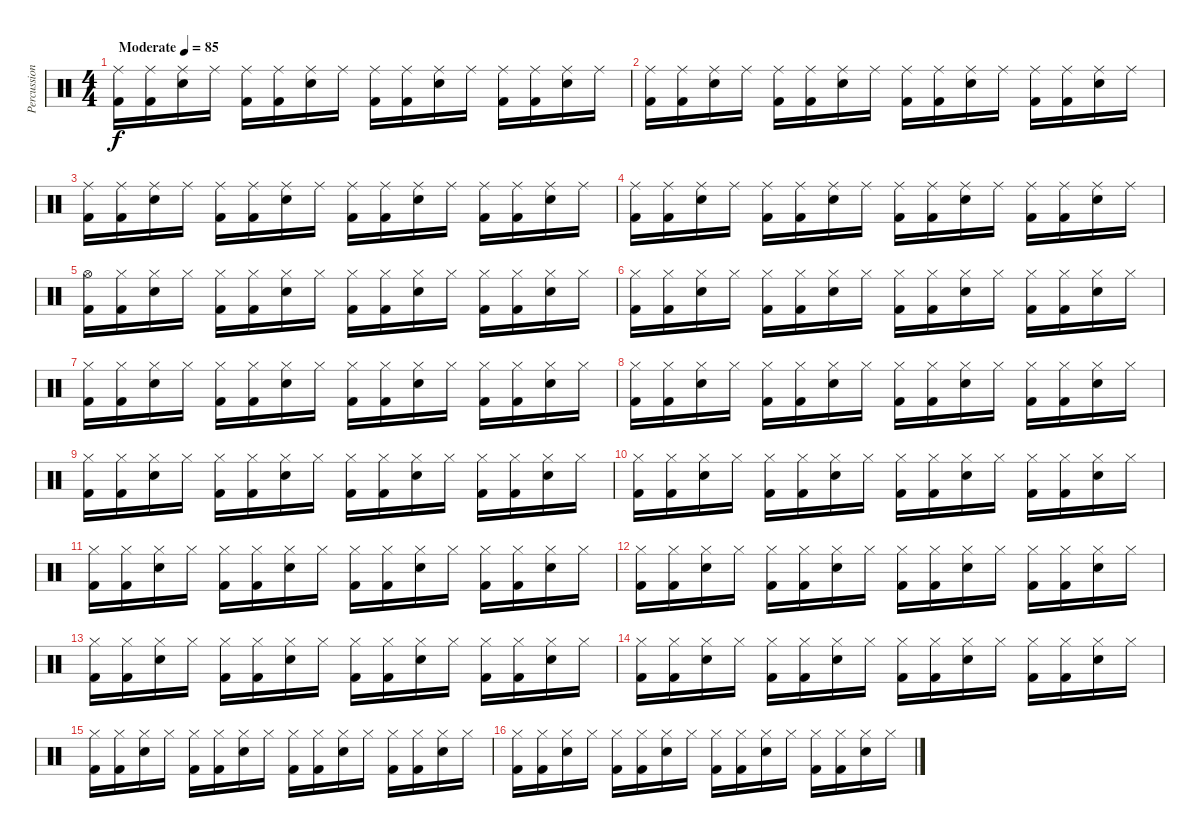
\track ("Percussion" "Percussion") {instrument percussion}
\staff {score}
\articulation defaults
\ts (4 4)
\tempo (85 "Moderate")
\clef neutral
\ks c
("Ride (middle)" "Kick (hit) 2").16{dy f} ("Ride (middle)" "Kick (hit) 2").16 ("Ride (middle)" "Snare (hit) 2").16 "Ride (middle)".16 ("Ride (middle)" "Kick (hit) 2").16 ("Ride (middle)" "Kick (hit) 2").16 ("Ride (middle)" "Snare (hit) 2").16 "Ride (middle)".16 ("Ride (middle)" "Kick (hit) 2").16 ("Ride (middle)" "Kick (hit) 2").16 ("Ride (middle)" "Snare (hit) 2").16 "Ride (middle)".16 ("Ride (middle)" "Kick (hit) 2").16 ("Ride (middle)" "Kick (hit) 2").16 ("Ride (middle)" "Snare (hit) 2").16 "Ride (middle)".16 |
("Ride (middle)" "Kick (hit) 2").16 ("Ride (middle)" "Kick (hit) 2").16 ("Ride (middle)" "Snare (hit) 2").16 "Ride (middle)".16 ("Ride (middle)" "Kick (hit) 2").16 ("Ride (middle)" "Kick (hit) 2").16 ("Ride (middle)" "Snare (hit) 2").16 "Ride (middle)".16 ("Ride (middle)" "Kick (hit) 2").16 ("Ride (middle)" "Kick (hit) 2").16 ("Ride (middle)" "Snare (hit) 2").16 "Ride (middle)".16 ("Ride (middle)" "Kick (hit) 2").16 ("Ride (middle)" "Kick (hit) 2").16 ("Ride (middle)" "Snare (hit) 2").16 "Ride (middle)".16 |
("Ride (middle)" "Kick (hit) 2").16 ("Ride (middle)" "Kick (hit) 2").16 ("Ride (middle)" "Snare (hit) 2").16 "Ride (middle)".16 ("Ride (middle)" "Kick (hit) 2").16 ("Ride (middle)" "Kick (hit) 2").16 ("Ride (middle)" "Snare (hit) 2").16 "Ride (middle)".16 ("Ride (middle)" "Kick (hit) 2").16 ("Ride (middle)" "Kick (hit) 2").16 ("Ride (middle)" "Snare (hit) 2").16 "Ride (middle)".16 ("Ride (middle)" "Kick (hit) 2").16 ("Ride (middle)" "Kick (hit) 2").16 ("Ride (middle)" "Snare (hit) 2").16 "Ride (middle)".16 |
("Ride (middle)" "Kick (hit) 2").16 ("Ride (middle)" "Kick (hit) 2").16 ("Ride (middle)" "Snare (hit) 2").16 "Ride (middle)".16 ("Ride (middle)" "Kick (hit) 2").16 ("Ride (middle)" "Kick (hit) 2").16 ("Ride (middle)" "Snare (hit) 2").16 "Ride (middle)".16 ("Ride (middle)" "Kick (hit) 2").16 ("Ride (middle)" "Kick (hit) 2").16 ("Ride (middle)" "Snare (hit) 2").16 "Ride (middle)".16 ("Ride (middle)" "Kick (hit) 2").16 ("Ride (middle)" "Kick (hit) 2").16 ("Ride (middle)" "Snare (hit) 2").16 "Ride (middle)".16 |
("Hi-Hat (open)" "Kick (hit) 2").16 ("Hi-Hat (closed)" "Kick (hit) 2").16 ("Hi-Hat (closed)" "Snare (hit) 2").16 "Hi-Hat (closed)".16 ("Hi-Hat (closed)" "Kick (hit) 2").16 ("Hi-Hat (closed)" "Kick (hit) 2").16 ("Hi-Hat (closed)" "Snare (hit) 2").16 "Hi-Hat (closed)".16 ("Hi-Hat (closed)" "Kick (hit) 2").16 ("Hi-Hat (closed)" "Kick (hit) 2").16 ("Hi-Hat (closed)" "Snare (hit) 2").16 "Hi-Hat (closed)".16 ("Hi-Hat (closed)" "Kick (hit) 2").16 ("Hi-Hat (closed)" "Kick (hit) 2").16 ("Hi-Hat (closed)" "Snare (hit) 2").16 "Hi-Hat (closed)".16 |
("Hi-Hat (closed)" "Kick (hit) 2").16 ("Hi-Hat (closed)" "Kick (hit) 2").16 ("Hi-Hat (closed)" "Snare (hit) 2").16 "Hi-Hat (closed)".16 ("Hi-Hat (closed)" "Kick (hit) 2").16 ("Hi-Hat (closed)" "Kick (hit) 2").16 ("Hi-Hat (closed)" "Snare (hit) 2").16 "Hi-Hat (closed)".16 ("Hi-Hat (closed)" "Kick (hit) 2").16 ("Hi-Hat (closed)" "Kick (hit) 2").16 ("Hi-Hat (closed)" "Snare (hit) 2").16 "Hi-Hat (closed)".16 ("Hi-Hat (closed)" "Kick (hit) 2").16 ("Hi-Hat (closed)" "Kick (hit) 2").16 ("Hi-Hat (closed)" "Snare (hit) 2").16 "Hi-Hat (closed)".16 |
("Hi-Hat (closed)" "Kick (hit) 2").16 ("Hi-Hat (closed)" "Kick (hit) 2").16 ("Hi-Hat (closed)" "Snare (hit) 2").16 "Hi-Hat (closed)".16 ("Hi-Hat (closed)" "Kick (hit) 2").16 ("Hi-Hat (closed)" "Kick (hit) 2").16 ("Hi-Hat (closed)" "Snare (hit) 2").16 "Hi-Hat (closed)".16 ("Hi-Hat (closed)" "Kick (hit) 2").16 ("Hi-Hat (closed)" "Kick (hit) 2").16 ("Hi-Hat (closed)" "Snare (hit) 2").16 "Hi-Hat (closed)".16 ("Hi-Hat (closed)" "Kick (hit) 2").16 ("Hi-Hat (closed)" "Kick (hit) 2").16 ("Hi-Hat (closed)" "Snare (hit) 2").16 "Hi-Hat (closed)".16 |
("Hi-Hat (closed)" "Kick (hit) 2").16 ("Hi-Hat (closed)" "Kick (hit) 2").16 ("Hi-Hat (closed)" "Snare (hit) 2").16 "Hi-Hat (closed)".16 ("Hi-Hat (closed)" "Kick (hit) 2").16 ("Hi-Hat (closed)" "Kick (hit) 2").16 ("Hi-Hat (closed)" "Snare (hit) 2").16 "Hi-Hat (closed)".16 ("Hi-Hat (closed)" "Kick (hit) 2").16 ("Hi-Hat (closed)" "Kick (hit) 2").16 ("Hi-Hat (closed)" "Snare (hit) 2").16 "Hi-Hat (closed)".16 ("Hi-Hat (closed)" "Kick (hit) 2").16 ("Hi-Hat (closed)" "Kick (hit) 2").16 ("Hi-Hat (closed)" "Snare (hit) 2").16 "Hi-Hat (closed)".16 |
("Hi-Hat (closed)" "Kick (hit) 2").16 ("Hi-Hat (closed)" "Kick (hit) 2").16 ("Hi-Hat (closed)" "Snare (hit) 2").16 "Hi-Hat (closed)".16 ("Hi-Hat (closed)" "Kick (hit) 2").16 ("Hi-Hat (closed)" "Kick (hit) 2").16 ("Hi-Hat (closed)" "Snare (hit) 2").16 "Hi-Hat (closed)".16 ("Hi-Hat (closed)" "Kick (hit) 2").16 ("Hi-Hat (closed)" "Kick (hit) 2").16 ("Hi-Hat (closed)" "Snare (hit) 2").16 "Hi-Hat (closed)".16 ("Hi-Hat (closed)" "Kick (hit) 2").16 ("Hi-Hat (closed)" "Kick (hit) 2").16 ("Hi-Hat (closed)" "Snare (hit) 2").16 "Hi-Hat (closed)".16 |
("Hi-Hat (closed)" "Kick (hit) 2").16 ("Hi-Hat (closed)" "Kick (hit) 2").16 ("Hi-Hat (closed)" "Snare (hit) 2").16 "Hi-Hat (closed)".16 ("Hi-Hat (closed)" "Kick (hit) 2").16 ("Hi-Hat (closed)" "Kick (hit) 2").16 ("Hi-Hat (closed)" "Snare (hit) 2").16 "Hi-Hat (closed)".16 ("Hi-Hat (closed)" "Kick (hit) 2").16 ("Hi-Hat (closed)" "Kick (hit) 2").16 ("Hi-Hat (closed)" "Snare (hit) 2").16 "Hi-Hat (closed)".16 ("Hi-Hat (closed)" "Kick (hit) 2").16 ("Hi-Hat (closed)" "Kick (hit) 2").16 ("Hi-Hat (closed)" "Snare (hit) 2").16 "Hi-Hat (closed)".16 |
("Hi-Hat (closed)" "Kick (hit) 2").16 ("Hi-Hat (closed)" "Kick (hit) 2").16 ("Hi-Hat (closed)" "Snare (hit) 2").16 "Hi-Hat (closed)".16 ("Hi-Hat (closed)" "Kick (hit) 2").16 ("Hi-Hat (closed)" "Kick (hit) 2").16 ("Hi-Hat (closed)" "Snare (hit) 2").16 "Hi-Hat (closed)".16 ("Hi-Hat (closed)" "Kick (hit) 2").16 ("Hi-Hat (closed)" "Kick (hit) 2").16 ("Hi-Hat (closed)" "Snare (hit) 2").16 "Hi-Hat (closed)".16 ("Hi-Hat (closed)" "Kick (hit) 2").16 ("Hi-Hat (closed)" "Kick (hit) 2").16 ("Hi-Hat (closed)" "Snare (hit) 2").16 "Hi-Hat (closed)".16 |
("Hi-Hat (closed)" "Kick (hit) 2").16 ("Hi-Hat (closed)" "Kick (hit) 2").16 ("Hi-Hat (closed)" "Snare (hit) 2").16 "Hi-Hat (closed)".16 ("Hi-Hat (closed)" "Kick (hit) 2").16 ("Hi-Hat (closed)" "Kick (hit) 2").16 ("Hi-Hat (closed)" "Snare (hit) 2").16 "Hi-Hat (closed)".16 ("Hi-Hat (closed)" "Kick (hit) 2").16 ("Hi-Hat (closed)" "Kick (hit) 2").16 ("Hi-Hat (closed)" "Snare (hit) 2").16 "Hi-Hat (closed)".16 ("Hi-Hat (closed)" "Kick (hit) 2").16 ("Hi-Hat (closed)" "Kick (hit) 2").16 ("Hi-Hat (closed)" "Snare (hit) 2").16 "Hi-Hat (closed)".16 |
("Hi-Hat (closed)" "Kick (hit) 2").16 ("Hi-Hat (closed)" "Kick (hit) 2").16 ("Hi-Hat (closed)" "Snare (hit) 2").16 "Hi-Hat (closed)".16 ("Hi-Hat (closed)" "Kick (hit) 2").16 ("Hi-Hat (closed)" "Kick (hit) 2").16 ("Hi-Hat (closed)" "Snare (hit) 2").16 "Hi-Hat (closed)".16 ("Hi-Hat (closed)" "Kick (hit) 2").16 ("Hi-Hat (closed)" "Kick (hit) 2").16 ("Hi-Hat (closed)" "Snare (hit) 2").16 "Hi-Hat (closed)".16 ("Hi-Hat (closed)" "Kick (hit) 2").16 ("Hi-Hat (closed)" "Kick (hit) 2").16 ("Hi-Hat (closed)" "Snare (hit) 2").16 "Hi-Hat (closed)".16 |
("Hi-Hat (closed)" "Kick (hit) 2").16 ("Hi-Hat (closed)" "Kick (hit) 2").16 ("Hi-Hat (closed)" "Snare (hit) 2").16 "Hi-Hat (closed)".16 ("Hi-Hat (closed)" "Kick (hit) 2").16 ("Hi-Hat (closed)" "Kick (hit) 2").16 ("Hi-Hat (closed)" "Snare (hit) 2").16 "Hi-Hat (closed)".16 ("Hi-Hat (closed)" "Kick (hit) 2").16 ("Hi-Hat (closed)" "Kick (hit) 2").16 ("Hi-Hat (closed)" "Snare (hit) 2").16 "Hi-Hat (closed)".16 ("Hi-Hat (closed)" "Kick (hit) 2").16 ("Hi-Hat (closed)" "Kick (hit) 2").16 ("Hi-Hat (closed)" "Snare (hit) 2").16 "Hi-Hat (closed)".16 |
("Hi-Hat (closed)" "Kick (hit) 2").16 ("Hi-Hat (closed)" "Kick (hit) 2").16 ("Hi-Hat (closed)" "Snare (hit) 2").16 "Hi-Hat (closed)".16 ("Hi-Hat (closed)" "Kick (hit) 2").16 ("Hi-Hat (closed)" "Kick (hit) 2").16 ("Hi-Hat (closed)" "Snare (hit) 2").16 "Hi-Hat (closed)".16 ("Hi-Hat (closed)" "Kick (hit) 2").16 ("Hi-Hat (closed)" "Kick (hit) 2").16 ("Hi-Hat (closed)" "Snare (hit) 2").16 "Hi-Hat (closed)".16 ("Hi-Hat (closed)" "Kick (hit) 2").16 ("Hi-Hat (closed)" "Kick (hit) 2").16 ("Hi-Hat (closed)" "Snare (hit) 2").16 "Hi-Hat (closed)".16 |
("Hi-Hat (closed)" "Kick (hit) 2").16 ("Hi-Hat (closed)" "Kick (hit) 2").16 ("Hi-Hat (closed)" "Snare (hit) 2").16 "Hi-Hat (closed)".16 ("Hi-Hat (closed)" "Kick (hit) 2").16 ("Hi-Hat (closed)" "Kick (hit) 2").16 ("Hi-Hat (closed)" "Snare (hit) 2").16 "Hi-Hat (closed)".16 ("Hi-Hat (closed)" "Kick (hit) 2").16 ("Hi-Hat (closed)" "Kick (hit) 2").16 ("Hi-Hat (closed)" "Snare (hit) 2").16 "Hi-Hat (closed)".16 ("Hi-Hat (closed)" "Kick (hit) 2").16 ("Hi-Hat (closed)" "Kick (hit) 2").16 ("Hi-Hat (closed)" "Snare (hit) 2").16 "Hi-Hat (closed)".16
